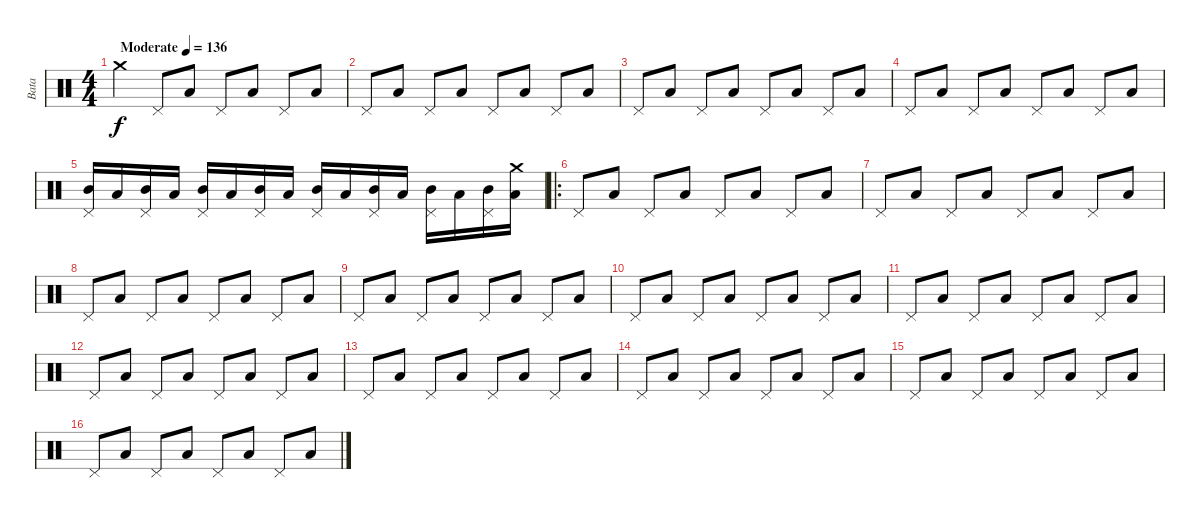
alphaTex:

\track ("Bata" "Bata") {instrument percussion}
\staff {score}
\articulation defaults
\ts (4 4)
\tempo (136 "Moderate")
\clef neutral
\ks c "Crash medium (hit)".4{dy f} "Pedal Hi-Hat (hit)".8 "Low Floor Tom (hit)".8 "Pedal Hi-Hat (hit)".8 "Low Floor Tom (hit)".8 "Pedal Hi-Hat (hit)".8 "Low Floor Tom (hit)".8
|
"Pedal Hi-Hat (hit)".8 "Low Floor Tom (hit)".8 "Pedal Hi-Hat (hit)".8 "Low Floor Tom (hit)".8 "Pedal Hi-Hat (hit)".8 "Low Floor Tom (hit)".8 "Pedal Hi-Hat (hit)".8 "Low Floor Tom (hit)".8 |
"Pedal Hi-Hat (hit)".8 "Low Floor Tom (hit)".8 "Pedal Hi-Hat (hit)".8 "Low Floor Tom (hit)".8 "Pedal Hi-Hat (hit)".8 "Low Floor Tom (hit)".8 "Pedal Hi-Hat (hit)".8 "Low Floor Tom (hit)".8 |
"Pedal Hi-Hat (hit)".8 "Low Floor Tom (hit)".8 "Pedal Hi-Hat (hit)".8 "Low Floor Tom (hit)".8 "Pedal Hi-Hat (hit)".8 "Low Floor Tom (hit)".8 "Pedal Hi-Hat (hit)".8 "Low Floor Tom (hit)".8 |
("Pedal Hi-Hat (hit)" "Mid Tom (hit)").16 "Low Floor Tom (hit)".16 ("Pedal Hi-Hat (hit)" "Mid Tom (hit)").16 "Low Floor Tom (hit)".16 ("Pedal Hi-Hat (hit)" "Mid Tom (hit)").16 "Low Floor Tom (hit)".16 ("Pedal Hi-Hat (hit)" "Mid Tom (hit)").16 "Low Floor Tom (hit)".16 ("Pedal Hi-Hat (hit)" "Mid Tom (hit)").16 "Low Floor Tom (hit)".16 ("Pedal Hi-Hat (hit)" "Mid Tom (hit)").16 "Low Floor Tom (hit)".16 ("Pedal Hi-Hat (hit)" "Mid Tom (hit)").16 "Low Floor Tom (hit)".16 ("Pedal Hi-Hat (hit)" "Mid Tom (hit)").16 ("Low Floor Tom (hit)" "Crash medium (hit)").16 |
\ro "Pedal Hi-Hat (hit)".8 "Low Floor Tom (hit)".8 "Pedal Hi-Hat (hit)".8 "Low Floor Tom (hit)".8 "Pedal Hi-Hat (hit)".8 "Low Floor Tom (hit)".8 "Pedal Hi-Hat (hit)".8 "Low Floor Tom (hit)".8
|
"Pedal Hi-Hat (hit)".8 "Low Floor Tom (hit)".8 "Pedal Hi-Hat (hit)".8 "Low Floor Tom (hit)".8 "Pedal Hi-Hat (hit)".8 "Low Floor Tom (hit)".8 "Pedal Hi-Hat (hit)".8 "Low Floor Tom (hit)".8 |
"Pedal Hi-Hat (hit)".8 "Low Floor Tom (hit)".8 "Pedal Hi-Hat (hit)".8 "Low Floor Tom (hit)".8 "Pedal Hi-Hat (hit)".8 "Low Floor Tom (hit)".8 "Pedal Hi-Hat (hit)".8 "Low Floor Tom (hit)".8 |
"Pedal Hi-Hat (hit)".8 "Low Floor Tom (hit)".8 "Pedal Hi-Hat (hit)".8 "Low Floor Tom (hit)".8 "Pedal Hi-Hat (hit)".8 "Low Floor Tom (hit)".8 "Pedal Hi-Hat (hit)".8 "Low Floor Tom (hit)".8 |
"Pedal Hi-Hat (hit)".8 "Low Floor Tom (hit)".8 "Pedal Hi-Hat (hit)".8 "Low Floor Tom (hit)".8 "Pedal Hi-Hat (hit)".8 "Low Floor Tom (hit)".8 "Pedal Hi-Hat (hit)".8 "Low Floor Tom (hit)".8 |
"Pedal Hi-Hat (hit)".8 "Low Floor Tom (hit)".8 "Pedal Hi-Hat (hit)".8 "Low Floor Tom (hit)".8 "Pedal Hi-Hat (hit)".8 "Low Floor Tom (hit)".8 "Pedal Hi-Hat (hit)".8 "Low Floor Tom (hit)".8 |
"Pedal Hi-Hat (hit)".8 "Low Floor Tom (hit)".8 "Pedal Hi-Hat (hit)".8 "Low Floor Tom (hit)".8 "Pedal Hi-Hat (hit)".8 "Low Floor Tom (hit)".8 "Pedal Hi-Hat (hit)".8 "Low Floor Tom (hit)".8 |
"Pedal Hi-Hat (hit)".8 "Low Floor Tom (hit)".8 "Pedal Hi-Hat (hit)".8 "Low Floor Tom (hit)".8 "Pedal Hi-Hat (hit)".8 "Low Floor Tom (hit)".8 "Pedal Hi-Hat (hit)".8 "Low Floor Tom (hit)".8 |
"Pedal Hi-Hat (hit)".8 "Low Floor Tom (hit)".8 "Pedal Hi-Hat (hit)".8 "Low Floor Tom (hit)".8 "Pedal Hi-Hat (hit)".8 "Low Floor Tom (hit)".8 "Pedal Hi-Hat (hit)".8 "Low Floor Tom (hit)".8 |
"Pedal Hi-Hat (hit)".8 "Low Floor Tom (hit)".8 "Pedal Hi-Hat (hit)".8 "Low Floor Tom (hit)".8 "Pedal Hi-Hat (hit)".8 "Low Floor Tom (hit)".8 "Pedal Hi-Hat (hit)".8 "Low Floor Tom (hit)".8 |
"Pedal Hi-Hat (hit)".8 "Low Floor Tom (hit)".8 "Pedal Hi-Hat (hit)".8 "Low Floor Tom (hit)".8 "Pedal Hi-Hat (hit)".8 "Low Floor Tom (hit)".8 "Pedal Hi-Hat (hit)".8 "Low Floor Tom (hit)".8
